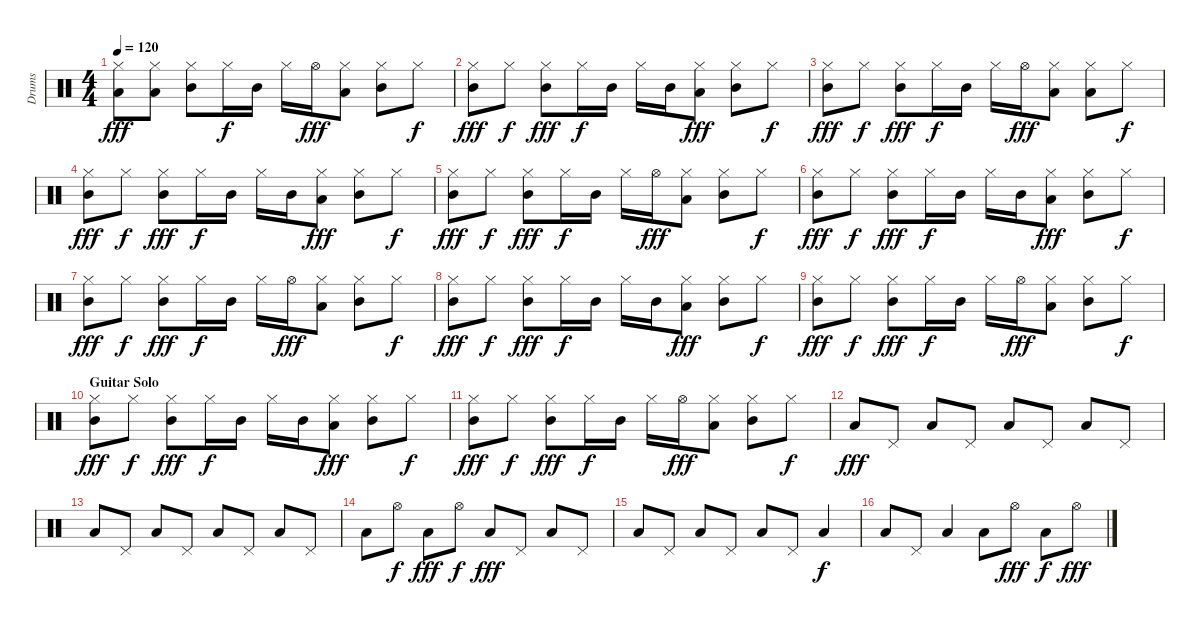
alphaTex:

\track ("Drums" "Drums") {instrument percussion}
\staff {score}
\articulation defaults
\ts (4 4)
\tempo 120
\clef neutral
\ks c
("Hi-Hat (closed)" "Low Floor Tom (hit)").8{dy fff} ("Hi-Hat (closed)" "Low Floor Tom (hit)").8 ("Hi-Hat (closed)" "Mid Tom (hit)").8 "Hi-Hat (closed)".16{dy f} "Mid Tom (hit)".16 "Hi-Hat (closed)".16 "Hi-Hat (open)".16{dy fff} ("Hi-Hat (closed)" "Low Floor Tom (hit)").8 ("Hi-Hat (closed)" "Mid Tom (hit)").8 "Hi-Hat (closed)".8{dy f} |
("Hi-Hat (closed)" "Mid Tom (hit)").8{dy fff} "Hi-Hat (closed)".8{dy f} ("Hi-Hat (closed)" "Mid Tom (hit)").8{dy fff} "Hi-Hat (closed)".16{dy f} "Mid Tom (hit)".16 "Hi-Hat (closed)".16 "Mid Tom (hit)".16 ("Hi-Hat (closed)" "Low Floor Tom (hit)").8{dy fff} ("Hi-Hat (closed)" "Mid Tom (hit)").8 "Hi-Hat (closed)".8{dy f} |
("Hi-Hat (closed)" "Mid Tom (hit)").8{dy fff} "Hi-Hat (closed)".8{dy f} ("Hi-Hat (closed)" "Mid Tom (hit)").8{dy fff} "Hi-Hat (closed)".16{dy f} "Mid Tom (hit)".16 "Hi-Hat (closed)".16 "Hi-Hat (open)".16{dy fff} ("Hi-Hat (closed)" "Low Floor Tom (hit)").8 ("Hi-Hat (closed)" "Low Floor Tom (hit)").8 "Hi-Hat (closed)".8{dy f} |
("Hi-Hat (closed)" "Mid Tom (hit)").8{dy fff} "Hi-Hat (closed)".8{dy f} ("Hi-Hat (closed)" "Mid Tom (hit)").8{dy fff} "Hi-Hat (closed)".16{dy f} "Mid Tom (hit)".16 "Hi-Hat (closed)".16 "Mid Tom (hit)".16 ("Hi-Hat (closed)" "Low Floor Tom (hit)").8{dy fff} ("Hi-Hat (closed)" "Mid Tom (hit)").8 "Hi-Hat (closed)".8{dy f} |
("Hi-Hat (closed)" "Mid Tom (hit)").8{dy fff} "Hi-Hat (closed)".8{dy f} ("Hi-Hat (closed)" "Mid Tom (hit)").8{dy fff} "Hi-Hat (closed)".16{dy f} "Mid Tom (hit)".16 "Hi-Hat (closed)".16 "Hi-Hat (open)".16{dy fff} ("Hi-Hat (closed)" "Low Floor Tom (hit)").8 ("Hi-Hat (closed)" "Mid Tom (hit)").8 "Hi-Hat (closed)".8{dy f} |
("Hi-Hat (closed)" "Mid Tom (hit)").8{dy fff} "Hi-Hat (closed)".8{dy f} ("Hi-Hat (closed)" "Mid Tom (hit)").8{dy fff} "Hi-Hat (closed)".16{dy f} "Mid Tom (hit)".16 "Hi-Hat (closed)".16 "Mid Tom (hit)".16 ("Hi-Hat (closed)" "Low Floor Tom (hit)").8{dy fff} ("Hi-Hat (closed)" "Mid Tom (hit)").8 "Hi-Hat (closed)".8{dy f} |
("Hi-Hat (closed)" "Mid Tom (hit)").8{dy fff} "Hi-Hat (closed)".8{dy f} ("Hi-Hat (closed)" "Mid Tom (hit)").8{dy fff} "Hi-Hat (closed)".16{dy f} "Mid Tom (hit)".16 "Hi-Hat (closed)".16 "Hi-Hat (open)".16{dy fff} ("Hi-Hat (closed)" "Low Floor Tom (hit)").8 ("Hi-Hat (closed)" "Mid Tom (hit)").8 "Hi-Hat (closed)".8{dy f} |
("Hi-Hat (closed)" "Mid Tom (hit)").8{dy fff} "Hi-Hat (closed)".8{dy f} ("Hi-Hat (closed)" "Mid Tom (hit)").8{dy fff} "Hi-Hat (closed)".16{dy f} "Mid Tom (hit)".16 "Hi-Hat (closed)".16 "Mid Tom (hit)".16 ("Hi-Hat (closed)" "Low Floor Tom (hit)").8{dy fff} ("Hi-Hat (closed)" "Mid Tom (hit)").8 "Hi-Hat (closed)".8{dy f} |
("Hi-Hat (closed)" "Mid Tom (hit)").8{dy fff} "Hi-Hat (closed)".8{dy f} ("Hi-Hat (closed)" "Mid Tom (hit)").8{dy fff} "Hi-Hat (closed)".16{dy f} "Mid Tom (hit)".16 "Hi-Hat (closed)".16 "Hi-Hat (open)".16{dy fff} ("Hi-Hat (closed)" "Low Floor Tom (hit)").8 ("Hi-Hat (closed)" "Mid Tom (hit)").8 "Hi-Hat (closed)".8{dy f} |
\section ("" "Guitar Solo")
("Hi-Hat (closed)" "Mid Tom (hit)").8{dy fff} "Hi-Hat (closed)".8{dy f} ("Hi-Hat (closed)" "Mid Tom (hit)").8{dy fff} "Hi-Hat (closed)".16{dy f} "Mid Tom (hit)".16 "Hi-Hat (closed)".16 "Mid Tom (hit)".16 ("Hi-Hat (closed)" "Low Floor Tom (hit)").8{dy fff} ("Hi-Hat (closed)" "Mid Tom (hit)").8 "Hi-Hat (closed)".8{dy f} |
("Hi-Hat (closed)" "Mid Tom (hit)").8{dy fff} "Hi-Hat (closed)".8{dy f} ("Hi-Hat (closed)" "Mid Tom (hit)").8{dy fff} "Hi-Hat (closed)".16{dy f} "Mid Tom (hit)".16 "Hi-Hat (closed)".16 "Hi-Hat (open)".16{dy fff} ("Hi-Hat (closed)" "Low Floor Tom (hit)").8 ("Hi-Hat (closed)" "Mid Tom (hit)").8 "Hi-Hat (closed)".8{dy f} |
"Low Floor Tom (hit)".8{dy fff} "Pedal Hi-Hat (hit)".8 "Low Floor Tom (hit)".8 "Pedal Hi-Hat (hit)".8 "Low Floor Tom (hit)".8 "Pedal Hi-Hat (hit)".8 "Low Floor Tom (hit)".8 "Pedal Hi-Hat (hit)".8 |
"Low Floor Tom (hit)".8 "Pedal Hi-Hat (hit)".8 "Low Floor Tom (hit)".8 "Pedal Hi-Hat (hit)".8 "Low Floor Tom (hit)".8 "Pedal Hi-Hat (hit)".8 "Low Floor Tom (hit)".8 "Pedal Hi-Hat (hit)".8 |
"Low Floor Tom (hit)".8 "Hi-Hat (open)".8{dy f} "Low Floor Tom (hit)".8{dy fff} "Hi-Hat (open)".8{dy f} "Low Floor Tom (hit)".8{dy fff} "Pedal Hi-Hat (hit)".8 "Low Floor Tom (hit)".8 "Pedal Hi-Hat (hit)".8 |
"Low Floor Tom (hit)".8 "Pedal Hi-Hat (hit)".8 "Low Floor Tom (hit)".8 "Pedal Hi-Hat (hit)".8 "Low Floor Tom (hit)".8 "Pedal Hi-Hat (hit)".8 "Low Floor Tom (hit)".4{dy f} |
"Low Floor Tom (hit)".8 "Pedal Hi-Hat (hit)".8 "Low Floor Tom (hit)".4 "Low Floor Tom (hit)".8 "Hi-Hat (open)".8{dy fff} "Low Floor Tom (hit)".8{dy f} "Hi-Hat (open)".8{dy fff}
